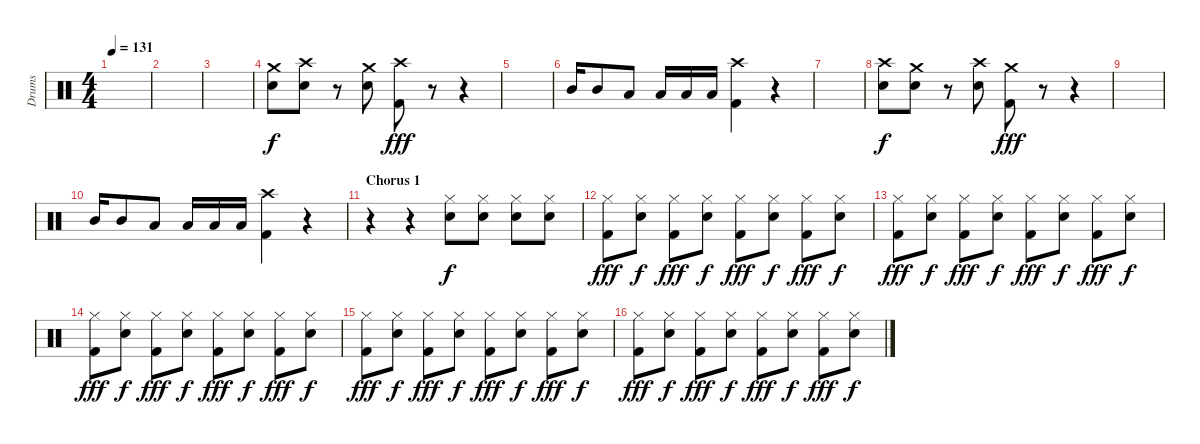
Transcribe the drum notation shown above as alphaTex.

\track ("Drums" "Drums") {instrument percussion}
\staff {score}
\articulation defaults
\ts (4 4)
\tempo 131
\clef neutral
\ks c
|
|
|
("Crash medium (hit)" "Electric Snare (hit)").8{dy f} ("Crash high (hit)" "Electric Snare (hit)").8 r.8 ("Crash medium (hit)" "Electric Snare (hit)").8 ("Crash high (hit)" "Kick (hit) 2").8{dy fff} r.8 r.4 |
|
"Mid Tom (hit)".16 "Mid Tom (hit)".8 "Low Tom (hit)".8 "Low Tom (hit)".16 "Low Floor Tom (hit)".16 "Low Floor Tom (hit)".16 ("Crash high (hit)" "Kick (hit) 2").4 r.4 |
|
("Crash high (hit)" "Electric Snare (hit)").8{dy f} ("Crash medium (hit)" "Electric Snare (hit)").8 r.8 ("Crash high (hit)" "Electric Snare (hit)").8 ("Crash medium (hit)" "Kick (hit) 2").8{dy fff} r.8 r.4 |
|
"Mid Tom (hit)".16 "Mid Tom (hit)".8 "Low Tom (hit)".8 "Low Tom (hit)".16 "Low Floor Tom (hit)".16 "Low Floor Tom (hit)".16 ("Crash high (hit)" "Kick (hit) 2").4 r.4 |
\section ("" "Chorus 1")
r.4 r.4 ("Hi-Hat (closed)" "Electric Snare (hit)").8{dy f} ("Hi-Hat (closed)" "Electric Snare (hit)").8 ("Hi-Hat (closed)" "Electric Snare (hit)").8 ("Hi-Hat (closed)" "Electric Snare (hit)").8 |
("Hi-Hat (closed)" "Kick (hit) 2").8{dy fff} ("Hi-Hat (closed)" "Electric Snare (hit)").8{dy f} ("Hi-Hat (closed)" "Kick (hit) 2").8{dy fff} ("Hi-Hat (closed)" "Electric Snare (hit)").8{dy f} ("Hi-Hat (closed)" "Kick (hit) 2").8{dy fff} ("Hi-Hat (closed)" "Electric Snare (hit)").8{dy f} ("Hi-Hat (closed)" "Kick (hit) 2").8{dy fff} ("Hi-Hat (closed)" "Electric Snare (hit)").8{dy f} |
("Hi-Hat (closed)" "Kick (hit) 2").8{dy fff} ("Hi-Hat (closed)" "Electric Snare (hit)").8{dy f} ("Hi-Hat (closed)" "Kick (hit) 2").8{dy fff} ("Hi-Hat (closed)" "Electric Snare (hit)").8{dy f} ("Hi-Hat (closed)" "Kick (hit) 2").8{dy fff} ("Hi-Hat (closed)" "Electric Snare (hit)").8{dy f} ("Hi-Hat (closed)" "Kick (hit) 2").8{dy fff} ("Hi-Hat (closed)" "Electric Snare (hit)").8{dy f} |
("Hi-Hat (closed)" "Kick (hit) 2").8{dy fff} ("Hi-Hat (closed)" "Electric Snare (hit)").8{dy f} ("Hi-Hat (closed)" "Kick (hit) 2").8{dy fff} ("Hi-Hat (closed)" "Electric Snare (hit)").8{dy f} ("Hi-Hat (closed)" "Kick (hit) 2").8{dy fff} ("Hi-Hat (closed)" "Electric Snare (hit)").8{dy f} ("Hi-Hat (closed)" "Kick (hit) 2").8{dy fff} ("Hi-Hat (closed)" "Electric Snare (hit)").8{dy f} |
("Hi-Hat (closed)" "Kick (hit) 2").8{dy fff} ("Hi-Hat (closed)" "Electric Snare (hit)").8{dy f} ("Hi-Hat (closed)" "Kick (hit) 2").8{dy fff} ("Hi-Hat (closed)" "Electric Snare (hit)").8{dy f} ("Hi-Hat (closed)" "Kick (hit) 2").8{dy fff} ("Hi-Hat (closed)" "Electric Snare (hit)").8{dy f} ("Hi-Hat (closed)" "Kick (hit) 2").8{dy fff} ("Hi-Hat (closed)" "Electric Snare (hit)").8{dy f} |
("Hi-Hat (closed)" "Kick (hit) 2").8{dy fff} ("Hi-Hat (closed)" "Electric Snare (hit)").8{dy f} ("Hi-Hat (closed)" "Kick (hit) 2").8{dy fff} ("Hi-Hat (closed)" "Electric Snare (hit)").8{dy f} ("Hi-Hat (closed)" "Kick (hit) 2").8{dy fff} ("Hi-Hat (closed)" "Electric Snare (hit)").8{dy f} ("Hi-Hat (closed)" "Kick (hit) 2").8{dy fff} ("Hi-Hat (closed)" "Electric Snare (hit)").8{dy f}
